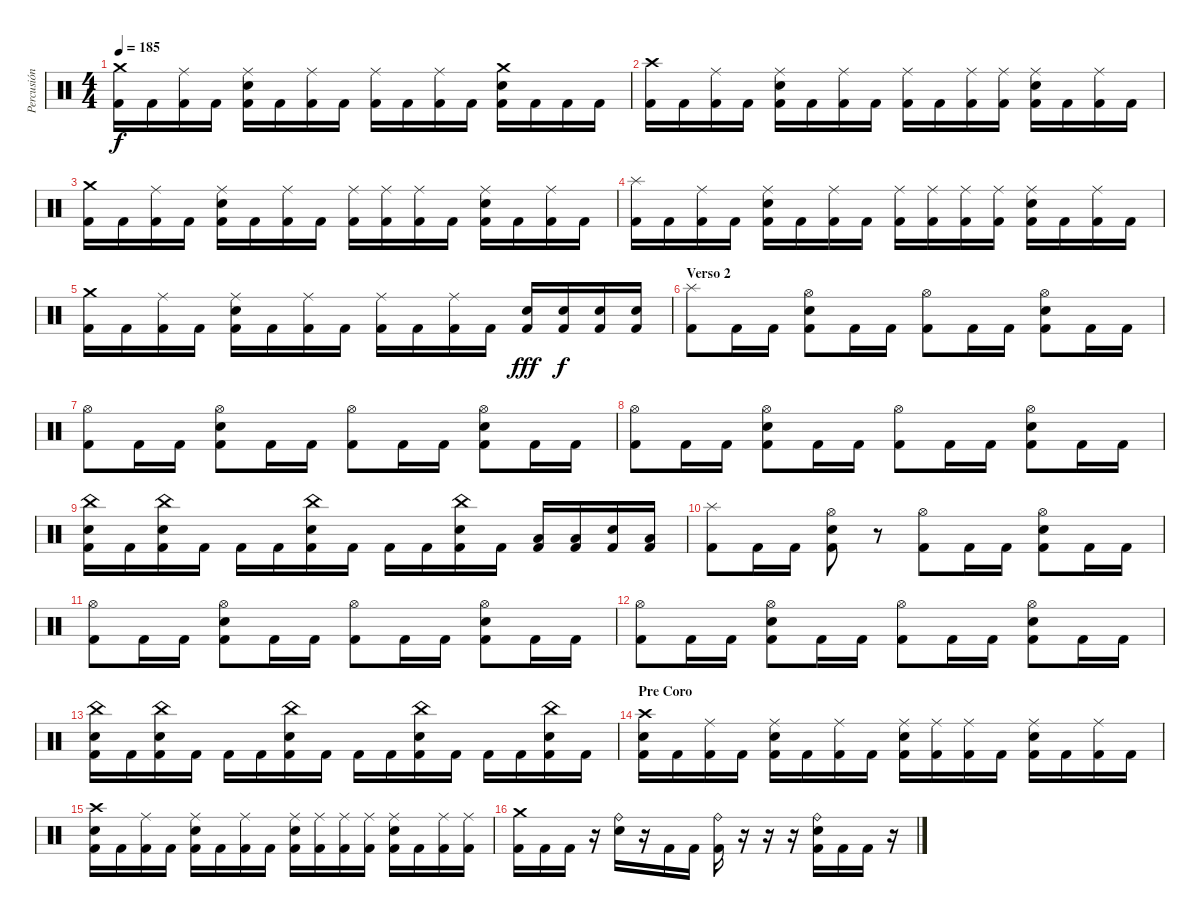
\track ("Percusión" "Percusión") {instrument percussion}
\staff {score}
\articulation defaults
\ts (4 4)
\tempo 185
\clef neutral
\ks c
("Crash medium (hit)" "Kick (hit) 2").16{dy f} "Kick (hit) 2".16 ("Ride (middle)" "Kick (hit) 2").16 "Kick (hit) 2".16 ("Ride (middle)" "Snare (hit) 2" "Kick (hit) 2").16 "Kick (hit) 2".16 ("Ride (middle)" "Kick (hit) 2").16 "Kick (hit) 2".16 ("Ride (middle)" "Kick (hit) 2").16 "Kick (hit) 2".16 ("Ride (middle)" "Kick (hit) 2").16 "Kick (hit) 2".16 ("Crash medium (hit)" "Snare (hit) 2" "Kick (hit) 2").16 "Kick (hit) 2".16 "Kick (hit) 2".16 "Kick (hit) 2".16 |
("Crash high (hit)" "Kick (hit) 2").16 "Kick (hit) 2".16 ("Ride (middle)" "Kick (hit) 2").16 "Kick (hit) 2".16 ("Ride (middle)" "Snare (hit) 2" "Kick (hit) 2").16 "Kick (hit) 2".16 ("Ride (middle)" "Kick (hit) 2").16 "Kick (hit) 2".16 ("Ride (middle)" "Kick (hit) 2").16 "Kick (hit) 2".16 ("Ride (middle)" "Kick (hit) 2").16 ("Ride (middle)" "Kick (hit) 2").16 ("Ride (middle)" "Snare (hit) 2" "Kick (hit) 2").16 "Kick (hit) 2".16 ("Ride (middle)" "Kick (hit) 2").16 "Kick (hit) 2".16 |
("Crash medium (hit)" "Kick (hit) 2").16 "Kick (hit) 2".16 ("Ride (middle)" "Kick (hit) 2").16 "Kick (hit) 2".16 ("Ride (middle)" "Snare (hit) 2" "Kick (hit) 2").16 "Kick (hit) 2".16 ("Ride (middle)" "Kick (hit) 2").16 "Kick (hit) 2".16 ("Ride (middle)" "Kick (hit) 2").16 ("Ride (middle)" "Kick (hit) 2").16 ("Ride (middle)" "Kick (hit) 2").16 "Kick (hit) 2".16 ("Ride (middle)" "Snare (hit) 2" "Kick (hit) 2").16 "Kick (hit) 2".16 ("Ride (middle)" "Kick (hit) 2").16 "Kick (hit) 2".16 |
("Splash (hit)" "Kick (hit) 2").16 "Kick (hit) 2".16 ("Ride (middle)" "Kick (hit) 2").16 "Kick (hit) 2".16 ("Ride (middle)" "Snare (hit) 2" "Kick (hit) 2").16 "Kick (hit) 2".16 ("Ride (middle)" "Kick (hit) 2").16 "Kick (hit) 2".16 ("Ride (middle)" "Kick (hit) 2").16 ("Ride (middle)" "Kick (hit) 2").16 ("Ride (middle)" "Kick (hit) 2").16 ("Ride (middle)" "Kick (hit) 2").16 ("Ride (middle)" "Snare (hit) 2" "Kick (hit) 2").16 "Kick (hit) 2".16 ("Ride (middle)" "Kick (hit) 2").16 "Kick (hit) 2".16 |
("Crash medium (hit)" "Kick (hit) 2").16 "Kick (hit) 2".16 ("Ride (middle)" "Kick (hit) 2").16 "Kick (hit) 2".16 ("Ride (middle)" "Snare (hit) 2" "Kick (hit) 2").16 "Kick (hit) 2".16 ("Ride (middle)" "Kick (hit) 2").16 "Kick (hit) 2".16 ("Ride (middle)" "Kick (hit) 2").16 "Kick (hit) 2".16 ("Ride (middle)" "Kick (hit) 2").16 "Kick (hit) 2".16 ("Snare (hit) 2" "Kick (hit) 2").16{dy fff} ("Snare (hit) 2" "Kick (hit) 2").16{dy f} ("Snare (hit) 2" "Kick (hit) 2").16 ("Snare (hit) 2" "Kick (hit) 2").16 |
\section ("" "Verso 2")
("Splash (hit)" "Kick (hit) 2").8 "Kick (hit) 2".16 "Kick (hit) 2".16 ("Hi-Hat (open)" "Snare (hit) 2" "Kick (hit) 2").8 "Kick (hit) 2".16 "Kick (hit) 2".16 ("Hi-Hat (open)" "Kick (hit) 2").8 "Kick (hit) 2".16 "Kick (hit) 2".16 ("Hi-Hat (open)" "Snare (hit) 2" "Kick (hit) 2").8 "Kick (hit) 2".16 "Kick (hit) 2".16 |
("Hi-Hat (open)" "Kick (hit) 2").8 "Kick (hit) 2".16 "Kick (hit) 2".16 ("Hi-Hat (open)" "Snare (hit) 2" "Kick (hit) 2").8 "Kick (hit) 2".16 "Kick (hit) 2".16 ("Hi-Hat (open)" "Kick (hit) 2").8 "Kick (hit) 2".16 "Kick (hit) 2".16 ("Hi-Hat (open)" "Snare (hit) 2" "Kick (hit) 2").8 "Kick (hit) 2".16 "Kick (hit) 2".16 |
("Hi-Hat (open)" "Kick (hit) 2").8 "Kick (hit) 2".16 "Kick (hit) 2".16 ("Hi-Hat (open)" "Snare (hit) 2" "Kick (hit) 2").8 "Kick (hit) 2".16 "Kick (hit) 2".16 ("Hi-Hat (open)" "Kick (hit) 2").8 "Kick (hit) 2".16 "Kick (hit) 2".16 ("Hi-Hat (open)" "Snare (hit) 2" "Kick (hit) 2").8 "Kick (hit) 2".16 "Kick (hit) 2".16 |
("China (hit)" "Snare (hit) 2" "Kick (hit) 2").16 "Kick (hit) 2".16 ("China (hit)" "Snare (hit) 2" "Kick (hit) 2").16 "Kick (hit) 2".16 "Kick (hit) 2".16 "Kick (hit) 2".16 ("China (hit)" "Snare (hit) 2" "Kick (hit) 2").16 "Kick (hit) 2".16 "Kick (hit) 2".16 "Kick (hit) 2".16 ("China (hit)" "Snare (hit) 2" "Kick (hit) 2").16 "Kick (hit) 2".16 ("Low Tom (hit)" "Kick (hit) 2").16 ("Low Tom (hit)" "Kick (hit) 2").16 ("Snare (hit) 2" "Kick (hit) 2").16 ("Low Tom (hit)" "Kick (hit) 2").16 |
("Splash (hit)" "Kick (hit) 2").8 "Kick (hit) 2".16 "Kick (hit) 2".16 ("Hi-Hat (open)" "Snare (hit) 2" "Kick (hit) 2").8 r.8 ("Hi-Hat (open)" "Kick (hit) 2").8 "Kick (hit) 2".16 "Kick (hit) 2".16 ("Hi-Hat (open)" "Snare (hit) 2" "Kick (hit) 2").8 "Kick (hit) 2".16 "Kick (hit) 2".16 |
("Hi-Hat (open)" "Kick (hit) 2").8 "Kick (hit) 2".16 "Kick (hit) 2".16 ("Hi-Hat (open)" "Snare (hit) 2" "Kick (hit) 2").8 "Kick (hit) 2".16 "Kick (hit) 2".16 ("Hi-Hat (open)" "Kick (hit) 2").8 "Kick (hit) 2".16 "Kick (hit) 2".16 ("Hi-Hat (open)" "Snare (hit) 2" "Kick (hit) 2").8 "Kick (hit) 2".16 "Kick (hit) 2".16 |
("Hi-Hat (open)" "Kick (hit) 2").8 "Kick (hit) 2".16 "Kick (hit) 2".16 ("Hi-Hat (open)" "Snare (hit) 2" "Kick (hit) 2").8 "Kick (hit) 2".16 "Kick (hit) 2".16 ("Hi-Hat (open)" "Kick (hit) 2").8 "Kick (hit) 2".16 "Kick (hit) 2".16 ("Hi-Hat (open)" "Snare (hit) 2" "Kick (hit) 2").8 "Kick (hit) 2".16 "Kick (hit) 2".16 |
("China (hit)" "Snare (hit) 2" "Kick (hit) 2").16 "Kick (hit) 2".16 ("China (hit)" "Snare (hit) 2" "Kick (hit) 2").16 "Kick (hit) 2".16 "Kick (hit) 2".16 "Kick (hit) 2".16 ("China (hit)" "Snare (hit) 2" "Kick (hit) 2").16 "Kick (hit) 2".16 "Kick (hit) 2".16 "Kick (hit) 2".16 ("China (hit)" "Snare (hit) 2" "Kick (hit) 2").16 "Kick (hit) 2".16 "Kick (hit) 2".16 "Kick (hit) 2".16 ("China (hit)" "Snare (hit) 2" "Kick (hit) 2").16 "Kick (hit) 2".16 |
\section ("" "Pre Coro")
("Crash high (hit)" "Snare (hit) 2" "Kick (hit) 2").16 "Kick (hit) 2".16 ("Ride (middle)" "Kick (hit) 2").16 "Kick (hit) 2".16 ("Ride (middle)" "Snare (hit) 2" "Kick (hit) 2").16 "Kick (hit) 2".16 ("Ride (middle)" "Kick (hit) 2").16 "Kick (hit) 2".16 ("Ride (middle)" "Snare (hit) 2" "Kick (hit) 2").16 ("Ride (middle)" "Kick (hit) 2").16 ("Ride (middle)" "Kick (hit) 2").16 "Kick (hit) 2".16 ("Ride (middle)" "Snare (hit) 2" "Kick (hit) 2").16 "Kick (hit) 2".16 ("Ride (middle)" "Kick (hit) 2").16 "Kick (hit) 2".16 |
("Crash high (hit)" "Snare (hit) 2" "Kick (hit) 2").16 "Kick (hit) 2".16 ("Ride (middle)" "Kick (hit) 2").16 "Kick (hit) 2".16 ("Ride (middle)" "Snare (hit) 2" "Kick (hit) 2").16 "Kick (hit) 2".16 ("Ride (middle)" "Kick (hit) 2").16 "Kick (hit) 2".16 ("Ride (middle)" "Snare (hit) 2" "Kick (hit) 2").16 ("Ride (middle)" "Kick (hit) 2").16 ("Ride (middle)" "Kick (hit) 2").16 ("Ride (middle)" "Kick (hit) 2").16 ("Ride (middle)" "Snare (hit) 2" "Kick (hit) 2").16 "Kick (hit) 2".16 ("Ride (middle)" "Kick (hit) 2").16 ("Ride (middle)" "Kick (hit) 2").16 |
("Crash medium (hit)" "Kick (hit) 2").16 "Kick (hit) 2".16 "Kick (hit) 2".16 r.16 ("Ride (bell)" "Snare (hit) 2").16 r.16 "Kick (hit) 2".16 "Kick (hit) 2".16 ("Ride (bell)" "Kick (hit) 2").16 r.16 r.16 r.16 ("Ride (bell)" "Snare (hit) 2" "Kick (hit) 2").16 "Kick (hit) 2".16 "Kick (hit) 2".16 r.16
